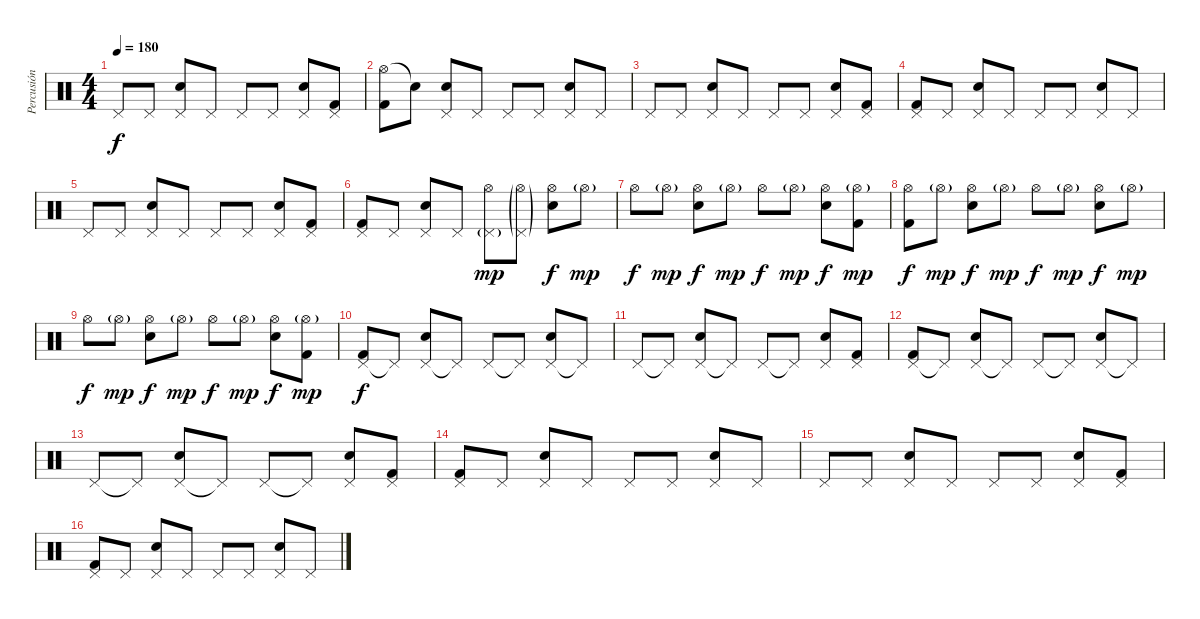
\track ("Percusión" "Percusión") {instrument percussion}
\staff {score}
\articulation defaults
\ts (4 4)
\tempo 180
\clef neutral
\ks c "Pedal Hi-Hat (hit)".8{dy f} "Pedal Hi-Hat (hit)".8
("Pedal Hi-Hat (hit)" "Electric Snare (hit)").8 "Pedal Hi-Hat (hit)".8 "Pedal Hi-Hat (hit)".8 "Pedal Hi-Hat (hit)".8 ("Pedal Hi-Hat (hit)" "Electric Snare (hit)").8 ("Pedal Hi-Hat (hit)" "Kick (hit) 2").8 |
("Hi-Hat (open)" "Kick (hit) 2").8 "Snare (hit)"{t}.8 ("Pedal Hi-Hat (hit)" "Electric Snare (hit)").8 "Pedal Hi-Hat (hit)".8 "Pedal Hi-Hat (hit)".8 "Pedal Hi-Hat (hit)".8 ("Pedal Hi-Hat (hit)" "Electric Snare (hit)").8 "Pedal Hi-Hat (hit)".8 |
"Pedal Hi-Hat (hit)".8 "Pedal Hi-Hat (hit)".8 ("Pedal Hi-Hat (hit)" "Electric Snare (hit)").8 "Pedal Hi-Hat (hit)".8 "Pedal Hi-Hat (hit)".8 "Pedal Hi-Hat (hit)".8 ("Pedal Hi-Hat (hit)" "Electric Snare (hit)").8 ("Pedal Hi-Hat (hit)" "Kick (hit) 2").8 |
("Pedal Hi-Hat (hit)" "Kick (hit) 2").8 "Pedal Hi-Hat (hit)".8 ("Pedal Hi-Hat (hit)" "Electric Snare (hit)").8 "Pedal Hi-Hat (hit)".8 "Pedal Hi-Hat (hit)".8 "Pedal Hi-Hat (hit)".8 ("Pedal Hi-Hat (hit)" "Electric Snare (hit)").8 "Pedal Hi-Hat (hit)".8 |
"Pedal Hi-Hat (hit)".8 "Pedal Hi-Hat (hit)".8 ("Pedal Hi-Hat (hit)" "Electric Snare (hit)").8 "Pedal Hi-Hat (hit)".8 "Pedal Hi-Hat (hit)".8 "Pedal Hi-Hat (hit)".8 ("Pedal Hi-Hat (hit)" "Electric Snare (hit)").8 ("Pedal Hi-Hat (hit)" "Kick (hit) 2").8 |
("Pedal Hi-Hat (hit)" "Kick (hit) 2").8 "Pedal Hi-Hat (hit)".8 ("Pedal Hi-Hat (hit)" "Electric Snare (hit)").8 "Pedal Hi-Hat (hit)".8 ("Pedal Hi-Hat (hit)"{g} "Hi-Hat (open)").8{dy mp} ("Pedal Hi-Hat (hit)"{g} "Hi-Hat (open)"{g}).8 ("Hi-Hat (open)" "Electric Snare (hit)").8{dy f} "Hi-Hat (open)"{g}.8{dy mp} |
"Hi-Hat (open)".8{dy f} "Hi-Hat (open)"{g}.8{dy mp} ("Hi-Hat (open)" "Electric Snare (hit)").8{dy f} "Hi-Hat (open)"{g}.8{dy mp} "Hi-Hat (open)".8{dy f} "Hi-Hat (open)"{g}.8{dy mp} ("Hi-Hat (open)" "Electric Snare (hit)").8{dy f} ("Hi-Hat (open)"{g} "Kick (hit) 2").8{dy mp} |
("Hi-Hat (open)" "Kick (hit) 2").8{dy f} "Hi-Hat (open)"{g}.8{dy mp} ("Hi-Hat (open)" "Electric Snare (hit)").8{dy f} "Hi-Hat (open)"{g}.8{dy mp} "Hi-Hat (open)".8{dy f} "Hi-Hat (open)"{g}.8{dy mp} ("Hi-Hat (open)" "Electric Snare (hit)").8{dy f} "Hi-Hat (open)"{g}.8{dy mp} |
"Hi-Hat (open)".8{dy f} "Hi-Hat (open)"{g}.8{dy mp} ("Hi-Hat (open)" "Electric Snare (hit)").8{dy f} "Hi-Hat (open)"{g}.8{dy mp} "Hi-Hat (open)".8{dy f} "Hi-Hat (open)"{g}.8{dy mp} ("Hi-Hat (open)" "Electric Snare (hit)").8{dy f} ("Hi-Hat (open)"{g} "Kick (hit) 2").8{dy mp} |
("Pedal Hi-Hat (hit)" "Kick (hit) 2").8{dy f} "Pedal Hi-Hat (hit)"{t}.8 ("Pedal Hi-Hat (hit)" "Electric Snare (hit)").8 "Pedal Hi-Hat (hit)"{t}.8 "Pedal Hi-Hat (hit)".8 "Pedal Hi-Hat (hit)"{t}.8 ("Pedal Hi-Hat (hit)" "Electric Snare (hit)").8 "Pedal Hi-Hat (hit)"{t}.8 |
"Pedal Hi-Hat (hit)".8 "Pedal Hi-Hat (hit)"{t}.8 ("Pedal Hi-Hat (hit)" "Electric Snare (hit)").8 "Pedal Hi-Hat (hit)"{t}.8 "Pedal Hi-Hat (hit)".8 "Pedal Hi-Hat (hit)"{t}.8 ("Pedal Hi-Hat (hit)" "Electric Snare (hit)").8 ("Pedal Hi-Hat (hit)" "Kick (hit) 2").8 |
("Pedal Hi-Hat (hit)" "Kick (hit) 2").8 "Pedal Hi-Hat (hit)"{t}.8 ("Pedal Hi-Hat (hit)" "Electric Snare (hit)").8 "Pedal Hi-Hat (hit)"{t}.8 "Pedal Hi-Hat (hit)".8 "Pedal Hi-Hat (hit)"{t}.8 ("Pedal Hi-Hat (hit)" "Electric Snare (hit)").8 "Pedal Hi-Hat (hit)"{t}.8 |
"Pedal Hi-Hat (hit)".8 "Pedal Hi-Hat (hit)"{t}.8 ("Pedal Hi-Hat (hit)" "Electric Snare (hit)").8 "Pedal Hi-Hat (hit)"{t}.8 "Pedal Hi-Hat (hit)".8 "Pedal Hi-Hat (hit)"{t}.8 ("Pedal Hi-Hat (hit)" "Electric Snare (hit)").8 ("Pedal Hi-Hat (hit)" "Kick (hit) 2").8 |
("Pedal Hi-Hat (hit)" "Kick (hit) 2").8 "Pedal Hi-Hat (hit)".8 ("Pedal Hi-Hat (hit)" "Electric Snare (hit)").8 "Pedal Hi-Hat (hit)".8 "Pedal Hi-Hat (hit)".8 "Pedal Hi-Hat (hit)".8 ("Pedal Hi-Hat (hit)" "Electric Snare (hit)").8 "Pedal Hi-Hat (hit)".8 |
"Pedal Hi-Hat (hit)".8 "Pedal Hi-Hat (hit)".8 ("Pedal Hi-Hat (hit)" "Electric Snare (hit)").8 "Pedal Hi-Hat (hit)".8 "Pedal Hi-Hat (hit)".8 "Pedal Hi-Hat (hit)".8 ("Pedal Hi-Hat (hit)" "Electric Snare (hit)").8 ("Pedal Hi-Hat (hit)" "Kick (hit) 2").8 |
("Pedal Hi-Hat (hit)" "Kick (hit) 2").8 "Pedal Hi-Hat (hit)".8 ("Pedal Hi-Hat (hit)" "Electric Snare (hit)").8 "Pedal Hi-Hat (hit)".8 "Pedal Hi-Hat (hit)".8 "Pedal Hi-Hat (hit)".8 ("Pedal Hi-Hat (hit)" "Electric Snare (hit)").8 "Pedal Hi-Hat (hit)".8
